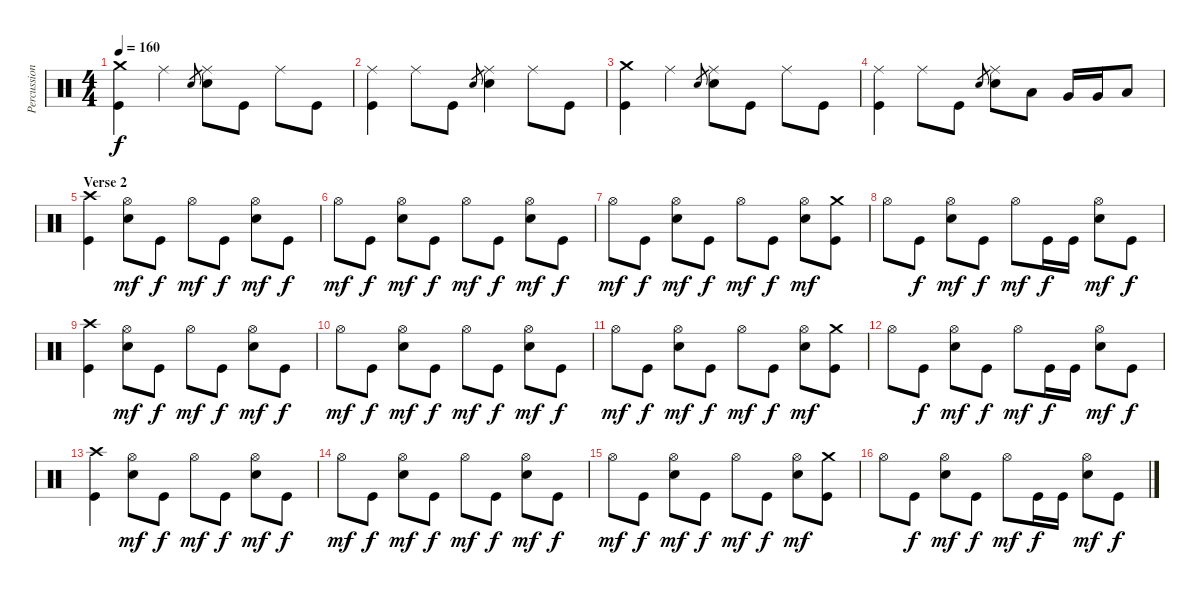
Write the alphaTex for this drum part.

\track ("Percussion" "Percussion") {instrument percussion}
\staff {score}
\articulation defaults
\ts (4 4)
\tempo 160
\clef neutral
\ks c
("Crash medium (hit)" "Kick (hit)").4{dy f} "Ride (middle)".4 "Electric Snare (hit)".8{gr} ("Ride (middle)" "Electric Snare (hit)").8 "Kick (hit)".8 "Ride (middle)".8 "Kick (hit)".8 |
("Ride (middle)" "Kick (hit)").4 "Ride (middle)".8 "Kick (hit)".8 "Electric Snare (hit)".8{gr} ("Ride (middle)" "Electric Snare (hit)").4 "Ride (middle)".8 "Kick (hit)".8 |
("Crash medium (hit)" "Kick (hit)").4 "Ride (middle)".4 "Electric Snare (hit)".8{gr} ("Ride (middle)" "Electric Snare (hit)").8 "Kick (hit)".8 "Ride (middle)".8 "Kick (hit)".8 |
("Ride (middle)" "Kick (hit)").4 "Ride (middle)".8 "Kick (hit)".8 "Electric Snare (hit)".8{gr} ("Ride (middle)" "Electric Snare (hit)").8 "Low Tom (hit)".8 "Very Low Tom (hit)".16 "Very Low Tom (hit)".16 "Low Floor Tom (hit)".8 |
\section ("" "Verse 2")
("Kick (hit)" "Crash high (hit)").4 ("Electric Snare (hit)" "Hi-Hat (open)").8{dy mf} "Kick (hit)".8{dy f} "Hi-Hat (open)".8{dy mf} "Kick (hit)".8{dy f} ("Electric Snare (hit)" "Hi-Hat (open)").8{dy mf} "Kick (hit)".8{dy f} |
"Hi-Hat (open)".8{dy mf} "Kick (hit)".8{dy f} ("Electric Snare (hit)" "Hi-Hat (open)").8{dy mf} "Kick (hit)".8{dy f} "Hi-Hat (open)".8{dy mf} "Kick (hit)".8{dy f} ("Electric Snare (hit)" "Hi-Hat (open)").8{dy mf} "Kick (hit)".8{dy f} |
"Hi-Hat (open)".8{dy mf} "Kick (hit)".8{dy f} ("Electric Snare (hit)" "Hi-Hat (open)").8{dy mf} "Kick (hit)".8{dy f} "Hi-Hat (open)".8{dy mf} "Kick (hit)".8{dy f} ("Electric Snare (hit)" "Hi-Hat (open)").8{dy mf} ("Kick (hit)" "Crash medium (hit)").8 |
"Hi-Hat (open)".8 "Kick (hit)".8{dy f} ("Electric Snare (hit)" "Hi-Hat (open)").8{dy mf} "Kick (hit)".8{dy f} "Hi-Hat (open)".8{dy mf} "Kick (hit)".16{dy f} "Kick (hit)".16 ("Electric Snare (hit)" "Hi-Hat (open)").8{dy mf} "Kick (hit)".8{dy f} |
("Kick (hit)" "Crash high (hit)").4 ("Electric Snare (hit)" "Hi-Hat (open)").8{dy mf} "Kick (hit)".8{dy f} "Hi-Hat (open)".8{dy mf} "Kick (hit)".8{dy f} ("Electric Snare (hit)" "Hi-Hat (open)").8{dy mf} "Kick (hit)".8{dy f} |
"Hi-Hat (open)".8{dy mf} "Kick (hit)".8{dy f} ("Electric Snare (hit)" "Hi-Hat (open)").8{dy mf} "Kick (hit)".8{dy f} "Hi-Hat (open)".8{dy mf} "Kick (hit)".8{dy f} ("Electric Snare (hit)" "Hi-Hat (open)").8{dy mf} "Kick (hit)".8{dy f} |
"Hi-Hat (open)".8{dy mf} "Kick (hit)".8{dy f} ("Electric Snare (hit)" "Hi-Hat (open)").8{dy mf} "Kick (hit)".8{dy f} "Hi-Hat (open)".8{dy mf} "Kick (hit)".8{dy f} ("Electric Snare (hit)" "Hi-Hat (open)").8{dy mf} ("Kick (hit)" "Crash medium (hit)").8 |
"Hi-Hat (open)".8 "Kick (hit)".8{dy f} ("Electric Snare (hit)" "Hi-Hat (open)").8{dy mf} "Kick (hit)".8{dy f} "Hi-Hat (open)".8{dy mf} "Kick (hit)".16{dy f} "Kick (hit)".16 ("Electric Snare (hit)" "Hi-Hat (open)").8{dy mf} "Kick (hit)".8{dy f} |
("Kick (hit)" "Crash high (hit)").4 ("Electric Snare (hit)" "Hi-Hat (open)").8{dy mf} "Kick (hit)".8{dy f} "Hi-Hat (open)".8{dy mf} "Kick (hit)".8{dy f} ("Electric Snare (hit)" "Hi-Hat (open)").8{dy mf} "Kick (hit)".8{dy f} |
"Hi-Hat (open)".8{dy mf} "Kick (hit)".8{dy f} ("Electric Snare (hit)" "Hi-Hat (open)").8{dy mf} "Kick (hit)".8{dy f} "Hi-Hat (open)".8{dy mf} "Kick (hit)".8{dy f} ("Electric Snare (hit)" "Hi-Hat (open)").8{dy mf} "Kick (hit)".8{dy f} |
"Hi-Hat (open)".8{dy mf} "Kick (hit)".8{dy f} ("Electric Snare (hit)" "Hi-Hat (open)").8{dy mf} "Kick (hit)".8{dy f} "Hi-Hat (open)".8{dy mf} "Kick (hit)".8{dy f} ("Electric Snare (hit)" "Hi-Hat (open)").8{dy mf} ("Kick (hit)" "Crash medium (hit)").8 |
"Hi-Hat (open)".8 "Kick (hit)".8{dy f} ("Electric Snare (hit)" "Hi-Hat (open)").8{dy mf} "Kick (hit)".8{dy f} "Hi-Hat (open)".8{dy mf} "Kick (hit)".16{dy f} "Kick (hit)".16 ("Electric Snare (hit)" "Hi-Hat (open)").8{dy mf} "Kick (hit)".8{dy f}
